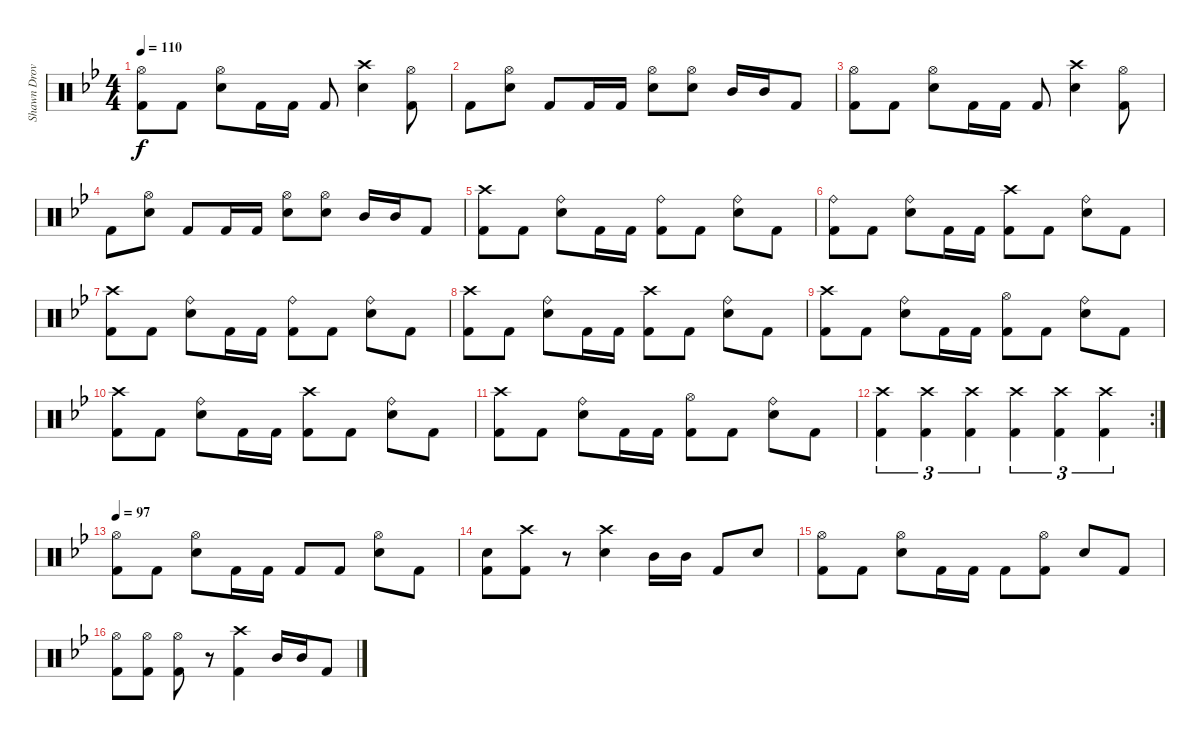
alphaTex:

\track ("Shawn Drover" "Shawn Drov") {instrument percussion}
\staff {score}
\articulation defaults
\ts (4 4)
\tempo 110
\clef neutral
\ks bb
("Hi-Hat (open)" "Kick (hit) 2").8{dy f} "Kick (hit) 2".8 ("Hi-Hat (open)" "Snare (hit) 2").8 "Kick (hit) 2".16 "Kick (hit) 2".16 "Kick (hit) 2".8 ("Crash high (hit)" "Snare (hit) 2").4 ("Hi-Hat (open)" "Kick (hit) 2").8 |
"Kick (hit) 2".8 ("Hi-Hat (open)" "Snare (hit) 2").8 "Kick (hit) 2".8 "Kick (hit) 2".16 "Kick (hit) 2".16 ("Hi-Hat (open)" "Snare (hit) 2").8 ("Hi-Hat (open)" "Snare (hit) 2").8 "Mid Tom (hit)".16 "Mid Tom (hit)".16 "Kick (hit) 2".8 |
("Hi-Hat (open)" "Kick (hit) 2").8 "Kick (hit) 2".8 ("Hi-Hat (open)" "Snare (hit) 2").8 "Kick (hit) 2".16 "Kick (hit) 2".16 "Kick (hit) 2".8 ("Crash high (hit)" "Snare (hit) 2").4 ("Hi-Hat (open)" "Kick (hit) 2").8 |
"Kick (hit) 2".8 ("Hi-Hat (open)" "Snare (hit) 2").8 "Kick (hit) 2".8 "Kick (hit) 2".16 "Kick (hit) 2".16 ("Hi-Hat (open)" "Snare (hit) 2").8 ("Hi-Hat (open)" "Snare (hit) 2").8 "Mid Tom (hit)".16 "Mid Tom (hit)".16 "Kick (hit) 2".8 |
("Crash high (hit)" "Kick (hit) 2").8 "Kick (hit) 2".8 ("Ride (bell)" "Snare (hit) 2").8 "Kick (hit) 2".16 "Kick (hit) 2".16 ("Ride (bell)" "Kick (hit) 2").8 "Kick (hit) 2".8 ("Ride (bell)" "Snare (hit) 2").8 "Kick (hit) 2".8 |
("Ride (bell)" "Kick (hit) 2").8 "Kick (hit) 2".8 ("Ride (bell)" "Snare (hit) 2").8 "Kick (hit) 2".16 "Kick (hit) 2".16 ("Crash high (hit)" "Kick (hit) 2").8 "Kick (hit) 2".8 ("Ride (bell)" "Snare (hit) 2").8 "Kick (hit) 2".8 |
("Crash high (hit)" "Kick (hit) 2").8 "Kick (hit) 2".8 ("Ride (bell)" "Snare (hit) 2").8 "Kick (hit) 2".16 "Kick (hit) 2".16 ("Ride (bell)" "Kick (hit) 2").8 "Kick (hit) 2".8 ("Ride (bell)" "Snare (hit) 2").8 "Kick (hit) 2".8 |
("Crash high (hit)" "Kick (hit) 2").8 "Kick (hit) 2".8 ("Ride (bell)" "Snare (hit) 2").8 "Kick (hit) 2".16 "Kick (hit) 2".16 ("Crash high (hit)" "Kick (hit) 2").8 "Kick (hit) 2".8 ("Ride (bell)" "Snare (hit) 2").8 "Kick (hit) 2".8 |
("Crash high (hit)" "Kick (hit) 2").8 "Kick (hit) 2".8 ("Ride (bell)" "Snare (hit) 2").8 "Kick (hit) 2".16 "Kick (hit) 2".16 ("Hi-Hat (open)" "Kick (hit) 2").8 "Kick (hit) 2".8 ("Ride (bell)" "Snare (hit) 2").8 "Kick (hit) 2".8 |
("Crash high (hit)" "Kick (hit) 2").8 "Kick (hit) 2".8 ("Ride (bell)" "Snare (hit) 2").8 "Kick (hit) 2".16 "Kick (hit) 2".16 ("Crash high (hit)" "Kick (hit) 2").8 "Kick (hit) 2".8 ("Ride (bell)" "Snare (hit) 2").8 "Kick (hit) 2".8 |
("Crash high (hit)" "Kick (hit) 2").8 "Kick (hit) 2".8 ("Ride (bell)" "Snare (hit) 2").8 "Kick (hit) 2".16 "Kick (hit) 2".16 ("Hi-Hat (open)" "Kick (hit) 2").8 "Kick (hit) 2".8 ("Ride (bell)" "Snare (hit) 2").8 "Kick (hit) 2".8 |
\rc 2
("Crash high (hit)" "Kick (hit) 2").4{tu (3 2)} ("Crash high (hit)" "Kick (hit) 2").4{tu (3 2)} ("Crash high (hit)" "Kick (hit) 2").4{tu (3 2)} ("Crash high (hit)" "Kick (hit) 2").4{tu (3 2)} ("Crash high (hit)" "Kick (hit) 2").4{tu (3 2)} ("Crash high (hit)" "Kick (hit) 2").4{tu (3 2)} |
\tempo 97
("Hi-Hat (open)" "Kick (hit) 2").8 "Kick (hit) 2".8 ("Hi-Hat (open)" "Snare (hit) 2").8 "Kick (hit) 2".16 "Kick (hit) 2".16 "Kick (hit) 2".8 "Kick (hit) 2".8 ("Hi-Hat (open)" "Snare (hit) 2").8 "Kick (hit) 2".8 |
("Kick (hit) 2" "Snare (hit) 2").8{bd 480} ("Crash high (hit)" "Kick (hit) 2").8 r.8 ("Crash high (hit)" "Snare (hit) 2").4 "Mid Tom (hit)".16 "Mid Tom (hit)".16 "Kick (hit) 2".8 "Snare (hit) 2".8 |
("Hi-Hat (open)" "Kick (hit) 2").8 "Kick (hit) 2".8 ("Hi-Hat (open)" "Snare (hit) 2").8 "Kick (hit) 2".16 "Kick (hit) 2".16 "Kick (hit) 2".8 ("Hi-Hat (open)" "Kick (hit) 2").8 "Snare (hit) 2".8 "Kick (hit) 2".8 |
("Hi-Hat (open)" "Kick (hit) 2").8 ("Hi-Hat (open)" "Kick (hit) 2").8 ("Hi-Hat (open)" "Kick (hit) 2").8 r.8 ("Crash high (hit)" "Kick (hit) 2").4 "Mid Tom (hit)".16 "Mid Tom (hit)".16 "Kick (hit) 2".8
